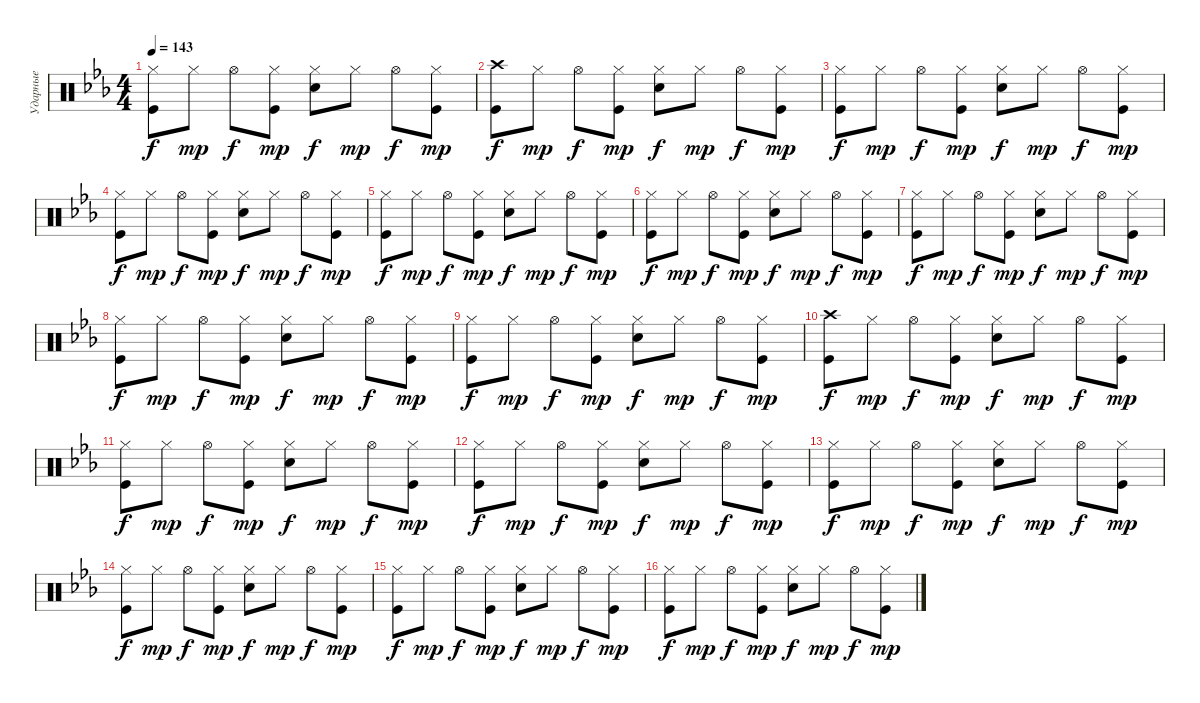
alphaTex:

\track ("Ударные" "Ударные") {instrument percussion}
\staff {score}
\articulation defaults
\ts (4 4)
\tempo 143
\clef neutral
\ks cminor
("Kick (hit)" "Hi-Hat (closed)").8{dy f} "Hi-Hat (closed)".8{dy mp} "Hi-Hat (open)".8{dy f} ("Kick (hit)" "Hi-Hat (closed)").8{dy mp} ("Snare (hit) 2" "Hi-Hat (closed)").8{dy f} "Hi-Hat (closed)".8{dy mp} "Hi-Hat (open)".8{dy f} ("Kick (hit)" "Hi-Hat (closed)").8{dy mp} |
("Kick (hit)" "Crash high (hit)").8{dy f} "Hi-Hat (closed)".8{dy mp} "Hi-Hat (open)".8{dy f} ("Kick (hit)" "Hi-Hat (closed)").8{dy mp} ("Snare (hit) 2" "Hi-Hat (closed)").8{dy f} "Hi-Hat (closed)".8{dy mp} "Hi-Hat (open)".8{dy f} ("Kick (hit)" "Hi-Hat (closed)").8{dy mp} |
("Kick (hit)" "Hi-Hat (closed)").8{dy f} "Hi-Hat (closed)".8{dy mp} "Hi-Hat (open)".8{dy f} ("Kick (hit)" "Hi-Hat (closed)").8{dy mp} ("Snare (hit) 2" "Hi-Hat (closed)").8{dy f} "Hi-Hat (closed)".8{dy mp} "Hi-Hat (open)".8{dy f} ("Kick (hit)" "Hi-Hat (closed)").8{dy mp} |
("Kick (hit)" "Hi-Hat (closed)").8{dy f} "Hi-Hat (closed)".8{dy mp} "Hi-Hat (open)".8{dy f} ("Kick (hit)" "Hi-Hat (closed)").8{dy mp} ("Snare (hit) 2" "Hi-Hat (closed)").8{dy f} "Hi-Hat (closed)".8{dy mp} "Hi-Hat (open)".8{dy f} ("Kick (hit)" "Hi-Hat (closed)").8{dy mp} |
("Kick (hit)" "Hi-Hat (closed)").8{dy f} "Hi-Hat (closed)".8{dy mp} "Hi-Hat (open)".8{dy f} ("Kick (hit)" "Hi-Hat (closed)").8{dy mp} ("Snare (hit) 2" "Hi-Hat (closed)").8{dy f} "Hi-Hat (closed)".8{dy mp} "Hi-Hat (open)".8{dy f} ("Kick (hit)" "Hi-Hat (closed)").8{dy mp} |
("Kick (hit)" "Hi-Hat (closed)").8{dy f} "Hi-Hat (closed)".8{dy mp} "Hi-Hat (open)".8{dy f} ("Kick (hit)" "Hi-Hat (closed)").8{dy mp} ("Snare (hit) 2" "Hi-Hat (closed)").8{dy f} "Hi-Hat (closed)".8{dy mp} "Hi-Hat (open)".8{dy f} ("Kick (hit)" "Hi-Hat (closed)").8{dy mp} |
("Kick (hit)" "Hi-Hat (closed)").8{dy f} "Hi-Hat (closed)".8{dy mp} "Hi-Hat (open)".8{dy f} ("Kick (hit)" "Hi-Hat (closed)").8{dy mp} ("Snare (hit) 2" "Hi-Hat (closed)").8{dy f} "Hi-Hat (closed)".8{dy mp} "Hi-Hat (open)".8{dy f} ("Kick (hit)" "Hi-Hat (closed)").8{dy mp} |
("Kick (hit)" "Hi-Hat (closed)").8{dy f} "Hi-Hat (closed)".8{dy mp} "Hi-Hat (open)".8{dy f} ("Kick (hit)" "Hi-Hat (closed)").8{dy mp} ("Snare (hit) 2" "Hi-Hat (closed)").8{dy f} "Hi-Hat (closed)".8{dy mp} "Hi-Hat (open)".8{dy f} ("Kick (hit)" "Hi-Hat (closed)").8{dy mp} |
("Kick (hit)" "Hi-Hat (closed)").8{dy f} "Hi-Hat (closed)".8{dy mp} "Hi-Hat (open)".8{dy f} ("Kick (hit)" "Hi-Hat (closed)").8{dy mp} ("Snare (hit) 2" "Hi-Hat (closed)").8{dy f} "Hi-Hat (closed)".8{dy mp} "Hi-Hat (open)".8{dy f} ("Kick (hit)" "Hi-Hat (closed)").8{dy mp} |
("Kick (hit)" "Crash high (hit)").8{dy f} "Hi-Hat (closed)".8{dy mp} "Hi-Hat (open)".8{dy f} ("Kick (hit)" "Hi-Hat (closed)").8{dy mp} ("Snare (hit) 2" "Hi-Hat (closed)").8{dy f} "Hi-Hat (closed)".8{dy mp} "Hi-Hat (open)".8{dy f} ("Kick (hit)" "Hi-Hat (closed)").8{dy mp} |
("Kick (hit)" "Hi-Hat (closed)").8{dy f} "Hi-Hat (closed)".8{dy mp} "Hi-Hat (open)".8{dy f} ("Kick (hit)" "Hi-Hat (closed)").8{dy mp} ("Snare (hit) 2" "Hi-Hat (closed)").8{dy f} "Hi-Hat (closed)".8{dy mp} "Hi-Hat (open)".8{dy f} ("Kick (hit)" "Hi-Hat (closed)").8{dy mp} |
("Kick (hit)" "Hi-Hat (closed)").8{dy f} "Hi-Hat (closed)".8{dy mp} "Hi-Hat (open)".8{dy f} ("Kick (hit)" "Hi-Hat (closed)").8{dy mp} ("Snare (hit) 2" "Hi-Hat (closed)").8{dy f} "Hi-Hat (closed)".8{dy mp} "Hi-Hat (open)".8{dy f} ("Kick (hit)" "Hi-Hat (closed)").8{dy mp} |
("Kick (hit)" "Hi-Hat (closed)").8{dy f} "Hi-Hat (closed)".8{dy mp} "Hi-Hat (open)".8{dy f} ("Kick (hit)" "Hi-Hat (closed)").8{dy mp} ("Snare (hit) 2" "Hi-Hat (closed)").8{dy f} "Hi-Hat (closed)".8{dy mp} "Hi-Hat (open)".8{dy f} ("Kick (hit)" "Hi-Hat (closed)").8{dy mp} |
("Kick (hit)" "Hi-Hat (closed)").8{dy f} "Hi-Hat (closed)".8{dy mp} "Hi-Hat (open)".8{dy f} ("Kick (hit)" "Hi-Hat (closed)").8{dy mp} ("Snare (hit) 2" "Hi-Hat (closed)").8{dy f} "Hi-Hat (closed)".8{dy mp} "Hi-Hat (open)".8{dy f} ("Kick (hit)" "Hi-Hat (closed)").8{dy mp} |
("Kick (hit)" "Hi-Hat (closed)").8{dy f} "Hi-Hat (closed)".8{dy mp} "Hi-Hat (open)".8{dy f} ("Kick (hit)" "Hi-Hat (closed)").8{dy mp} ("Snare (hit) 2" "Hi-Hat (closed)").8{dy f} "Hi-Hat (closed)".8{dy mp} "Hi-Hat (open)".8{dy f} ("Kick (hit)" "Hi-Hat (closed)").8{dy mp} |
("Kick (hit)" "Hi-Hat (closed)").8{dy f} "Hi-Hat (closed)".8{dy mp} "Hi-Hat (open)".8{dy f} ("Kick (hit)" "Hi-Hat (closed)").8{dy mp} ("Snare (hit) 2" "Hi-Hat (closed)").8{dy f} "Hi-Hat (closed)".8{dy mp} "Hi-Hat (open)".8{dy f} ("Kick (hit)" "Hi-Hat (closed)").8{dy mp}
